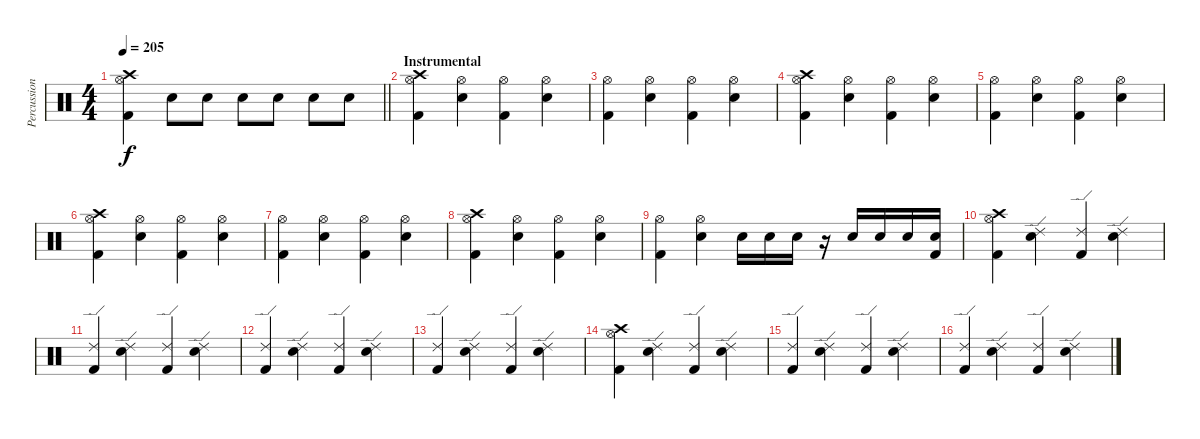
\track ("Percussion" "Percussion") {instrument percussion}
\staff {score}
\articulation defaults
\ts (4 4)
\tempo 205
\clef neutral
\barLineRight lightlight
\ks c
("Crash high (hit)" "Hi-Hat (open)" "Kick (hit) 2").4{dy f} "Electric Snare (hit)".8 "Electric Snare (hit)".8 "Electric Snare (hit)".8 "Electric Snare (hit)".8 "Electric Snare (hit)".8 "Electric Snare (hit)".8 |
\section ("" "Instrumental")
("Crash high (hit)" "Hi-Hat (open)" "Kick (hit) 2").4 ("Electric Snare (hit)" "Hi-Hat (open)").4 ("Hi-Hat (open)" "Kick (hit) 2").4 ("Electric Snare (hit)" "Hi-Hat (open)").4 |
("Hi-Hat (open)" "Kick (hit) 2").4 ("Electric Snare (hit)" "Hi-Hat (open)").4 ("Hi-Hat (open)" "Kick (hit) 2").4 ("Electric Snare (hit)" "Hi-Hat (open)").4 |
("Crash high (hit)" "Hi-Hat (open)" "Kick (hit) 2").4 ("Electric Snare (hit)" "Hi-Hat (open)").4 ("Hi-Hat (open)" "Kick (hit) 2").4 ("Electric Snare (hit)" "Hi-Hat (open)").4 |
("Hi-Hat (open)" "Kick (hit) 2").4 ("Electric Snare (hit)" "Hi-Hat (open)").4 ("Hi-Hat (open)" "Kick (hit) 2").4 ("Electric Snare (hit)" "Hi-Hat (open)").4 |
("Crash high (hit)" "Hi-Hat (open)" "Kick (hit) 2").4 ("Electric Snare (hit)" "Hi-Hat (open)").4 ("Hi-Hat (open)" "Kick (hit) 2").4 ("Electric Snare (hit)" "Hi-Hat (open)").4 |
("Hi-Hat (open)" "Kick (hit) 2").4 ("Electric Snare (hit)" "Hi-Hat (open)").4 ("Hi-Hat (open)" "Kick (hit) 2").4 ("Electric Snare (hit)" "Hi-Hat (open)").4 |
("Crash high (hit)" "Hi-Hat (open)" "Kick (hit) 2").4 ("Electric Snare (hit)" "Hi-Hat (open)").4 ("Hi-Hat (open)" "Kick (hit) 2").4 ("Electric Snare (hit)" "Hi-Hat (open)").4 |
("Hi-Hat (open)" "Kick (hit) 2").4 ("Electric Snare (hit)" "Hi-Hat (open)").4 "Electric Snare (hit)".16 "Electric Snare (hit)".16 "Electric Snare (hit)".16 r.16 "Electric Snare (hit)".16 "Electric Snare (hit)".16 "Electric Snare (hit)".16 ("Electric Snare (hit)" "Kick (hit) 2").16 |
("Crash high (hit)" "Hi-Hat (open)" "Kick (hit) 2").4 ("Ride (edge) 2" "Electric Snare (hit)").4 ("Ride (edge) 2" "Kick (hit) 2").4 ("Ride (edge) 2" "Electric Snare (hit)").4 |
("Ride (edge) 2" "Kick (hit) 2").4 ("Ride (edge) 2" "Electric Snare (hit)").4 ("Ride (edge) 2" "Kick (hit) 2").4 ("Ride (edge) 2" "Electric Snare (hit)").4 |
("Ride (edge) 2" "Kick (hit) 2").4 ("Ride (edge) 2" "Electric Snare (hit)").4 ("Ride (edge) 2" "Kick (hit) 2").4 ("Ride (edge) 2" "Electric Snare (hit)").4 |
("Ride (edge) 2" "Kick (hit) 2").4 ("Ride (edge) 2" "Electric Snare (hit)").4 ("Ride (edge) 2" "Kick (hit) 2").4 ("Ride (edge) 2" "Electric Snare (hit)").4 |
("Crash high (hit)" "Hi-Hat (open)" "Kick (hit) 2").4 ("Ride (edge) 2" "Electric Snare (hit)").4 ("Ride (edge) 2" "Kick (hit) 2").4 ("Ride (edge) 2" "Electric Snare (hit)").4 |
("Ride (edge) 2" "Kick (hit) 2").4 ("Ride (edge) 2" "Electric Snare (hit)").4 ("Ride (edge) 2" "Kick (hit) 2").4 ("Ride (edge) 2" "Electric Snare (hit)").4 |
("Ride (edge) 2" "Kick (hit) 2").4 ("Ride (edge) 2" "Electric Snare (hit)").4 ("Ride (edge) 2" "Kick (hit) 2").4 ("Ride (edge) 2" "Electric Snare (hit)").4
